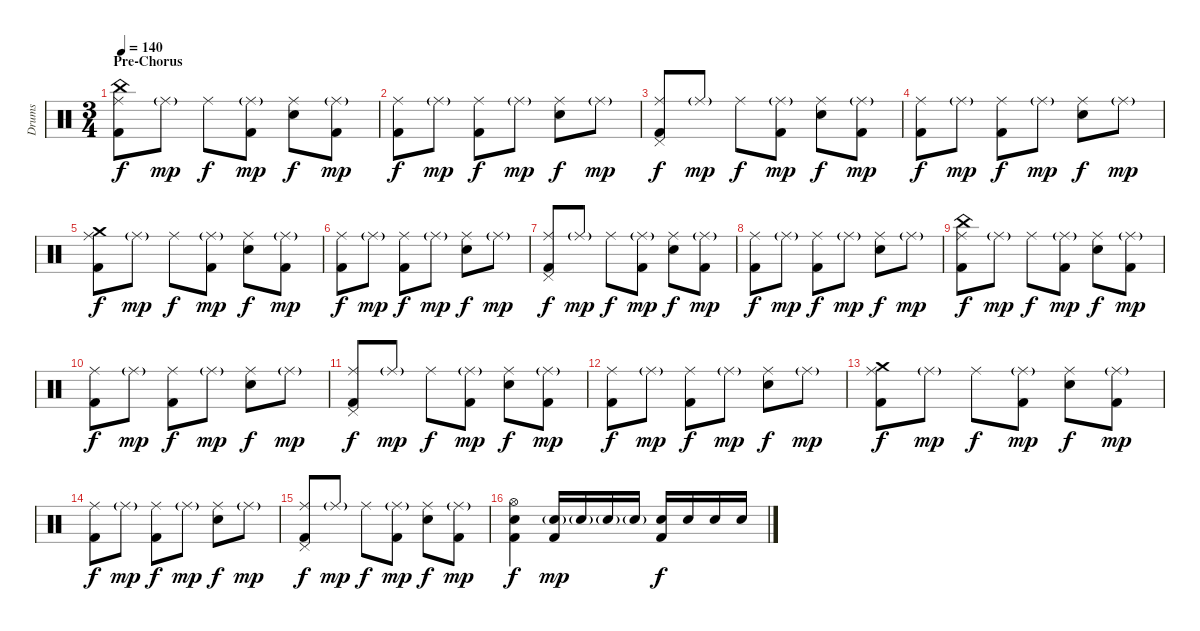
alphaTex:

\track ("Drums" "Drums") {instrument percussion}
\staff {score}
\articulation defaults
\ts (3 4)
\section ("" "Pre-Chorus")
\tempo 140
\clef neutral
\ks c
("China (hit)" "Ride (middle)" "Kick (hit) 2").8{dy f} "Ride (middle)"{g}.8{dy mp} "Ride (middle)".8{dy f} ("Ride (middle)"{g} "Kick (hit) 2").8{dy mp} ("Ride (middle)" "Snare (hit) 2").8{dy f} ("Ride (middle)"{g} "Kick (hit) 2").8{dy mp} |
("Ride (middle)" "Kick (hit) 2").8{dy f} "Ride (middle)"{g}.8{dy mp} ("Ride (middle)" "Kick (hit) 2").8{dy f} "Ride (middle)"{g}.8{dy mp} ("Ride (middle)" "Snare (hit) 2").8{dy f} "Ride (middle)"{g}.8{dy mp} |
("Pedal Hi-Hat (hit)" "Ride (middle)" "Kick (hit) 2").8{dy f} "Ride (middle)"{g}.8{dy mp} "Ride (middle)".8{dy f} ("Ride (middle)"{g} "Kick (hit) 2").8{dy mp} ("Ride (middle)" "Snare (hit) 2").8{dy f} ("Ride (middle)"{g} "Kick (hit) 2").8{dy mp} |
("Ride (middle)" "Kick (hit) 2").8{dy f} "Ride (middle)"{g}.8{dy mp} ("Ride (middle)" "Kick (hit) 2").8{dy f} "Ride (middle)"{g}.8{dy mp} ("Ride (middle)" "Snare (hit) 2").8{dy f} "Ride (middle)"{g}.8{dy mp} |
("Crash medium (hit)" "Ride (middle)" "Kick (hit) 2").8{dy f} "Ride (middle)"{g}.8{dy mp} "Ride (middle)".8{dy f} ("Ride (middle)"{g} "Kick (hit) 2").8{dy mp} ("Ride (middle)" "Snare (hit) 2").8{dy f} ("Ride (middle)"{g} "Kick (hit) 2").8{dy mp} |
("Ride (middle)" "Kick (hit) 2").8{dy f} "Ride (middle)"{g}.8{dy mp} ("Ride (middle)" "Kick (hit) 2").8{dy f} "Ride (middle)"{g}.8{dy mp} ("Ride (middle)" "Snare (hit) 2").8{dy f} "Ride (middle)"{g}.8{dy mp} |
("Pedal Hi-Hat (hit)" "Ride (middle)" "Kick (hit) 2").8{dy f} "Ride (middle)"{g}.8{dy mp} "Ride (middle)".8{dy f} ("Ride (middle)"{g} "Kick (hit) 2").8{dy mp} ("Ride (middle)" "Snare (hit) 2").8{dy f} ("Ride (middle)"{g} "Kick (hit) 2").8{dy mp} |
("Ride (middle)" "Kick (hit) 2").8{dy f} "Ride (middle)"{g}.8{dy mp} ("Ride (middle)" "Kick (hit) 2").8{dy f} "Ride (middle)"{g}.8{dy mp} ("Ride (middle)" "Snare (hit) 2").8{dy f} "Ride (middle)"{g}.8{dy mp} |
("China (hit)" "Ride (middle)" "Kick (hit) 2").8{dy f} "Ride (middle)"{g}.8{dy mp} "Ride (middle)".8{dy f} ("Ride (middle)"{g} "Kick (hit) 2").8{dy mp} ("Ride (middle)" "Snare (hit) 2").8{dy f} ("Ride (middle)"{g} "Kick (hit) 2").8{dy mp} |
("Ride (middle)" "Kick (hit) 2").8{dy f} "Ride (middle)"{g}.8{dy mp} ("Ride (middle)" "Kick (hit) 2").8{dy f} "Ride (middle)"{g}.8{dy mp} ("Ride (middle)" "Snare (hit) 2").8{dy f} "Ride (middle)"{g}.8{dy mp} |
("Pedal Hi-Hat (hit)" "Ride (middle)" "Kick (hit) 2").8{dy f} "Ride (middle)"{g}.8{dy mp} "Ride (middle)".8{dy f} ("Ride (middle)"{g} "Kick (hit) 2").8{dy mp} ("Ride (middle)" "Snare (hit) 2").8{dy f} ("Ride (middle)"{g} "Kick (hit) 2").8{dy mp} |
("Ride (middle)" "Kick (hit) 2").8{dy f} "Ride (middle)"{g}.8{dy mp} ("Ride (middle)" "Kick (hit) 2").8{dy f} "Ride (middle)"{g}.8{dy mp} ("Ride (middle)" "Snare (hit) 2").8{dy f} "Ride (middle)"{g}.8{dy mp} |
("Crash medium (hit)" "Ride (middle)" "Kick (hit) 2").8{dy f} "Ride (middle)"{g}.8{dy mp} "Ride (middle)".8{dy f} ("Ride (middle)"{g} "Kick (hit) 2").8{dy mp} ("Ride (middle)" "Snare (hit) 2").8{dy f} ("Ride (middle)"{g} "Kick (hit) 2").8{dy mp} |
("Ride (middle)" "Kick (hit) 2").8{dy f} "Ride (middle)"{g}.8{dy mp} ("Ride (middle)" "Kick (hit) 2").8{dy f} "Ride (middle)"{g}.8{dy mp} ("Ride (middle)" "Snare (hit) 2").8{dy f} "Ride (middle)"{g}.8{dy mp} |
("Pedal Hi-Hat (hit)" "Ride (middle)" "Kick (hit) 2").8{dy f} "Ride (middle)"{g}.8{dy mp} "Ride (middle)".8{dy f} ("Ride (middle)"{g} "Kick (hit) 2").8{dy mp} ("Ride (middle)" "Snare (hit) 2").8{dy f} ("Ride (middle)"{g} "Kick (hit) 2").8{dy mp} |
("Hi-Hat (open)" "Snare (hit) 2" "Kick (hit) 2").4{dy f} ("Snare (hit) 2"{g} "Kick (hit) 2").16{dy mp} "Snare (hit) 2"{g}.16 "Snare (hit) 2"{g}.16 "Snare (hit) 2"{g}.16 ("Snare (hit) 2" "Kick (hit) 2").16{dy f} "Snare (hit) 2".16 "Snare (hit) 2".16 "Snare (hit) 2".16
